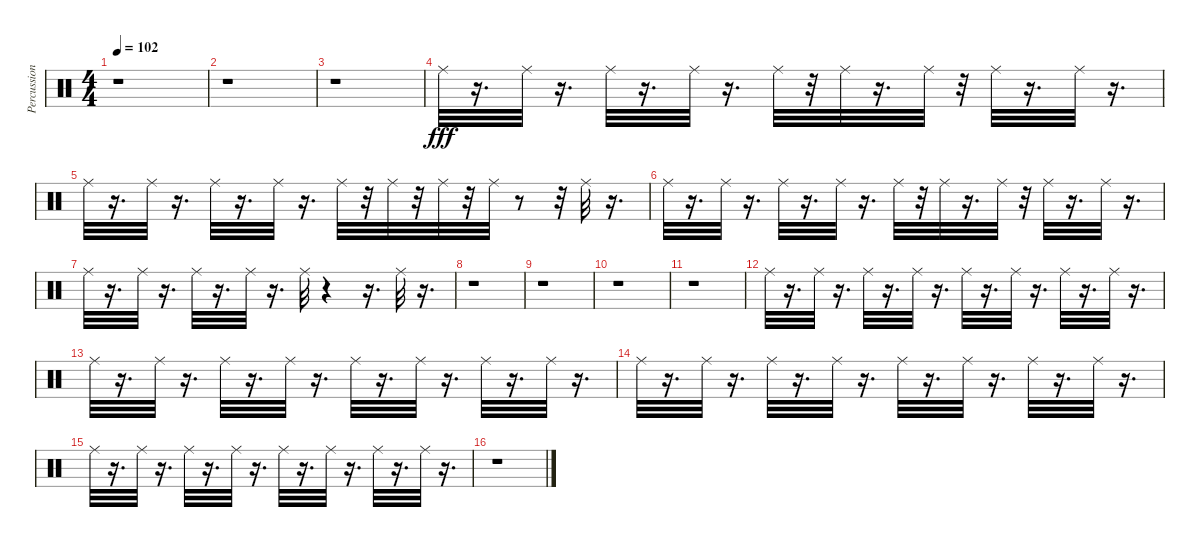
\track ("Percussion" "Percussion") {instrument percussion}
\staff {score}
\articulation defaults
\ts (4 4)
\tempo 102
\clef neutral
\ks c
r.1{dy fff} |
r.1 |
r.1 |
"Ride (middle)".32 r.16{d} "Ride (middle)".32 r.16{d} "Ride (middle)".32 r.16{d} "Ride (middle)".32 r.16{d} "Ride (middle)".32 r.32 "Ride (middle)".32 r.16{d} "Ride (middle)".32 r.32 "Ride (middle)".32 r.16{d} "Ride (middle)".32 r.16{d} |
"Ride (middle)".32 r.16{d} "Ride (middle)".32 r.16{d} "Ride (middle)".32 r.16{d} "Ride (middle)".32 r.16{d} "Ride (middle)".32 r.32 "Ride (middle)".32 r.32 "Ride (middle)".32 r.32 "Ride (middle)".32 r.8 r.32 "Ride (middle)".32 r.16{d} |
"Ride (middle)".32 r.16{d} "Ride (middle)".32 r.16{d} "Ride (middle)".32 r.16{d} "Ride (middle)".32 r.16{d} "Ride (middle)".32 r.32 "Ride (middle)".32 r.16{d} "Ride (middle)".32 r.32 "Ride (middle)".32 r.16{d} "Ride (middle)".32 r.16{d} |
"Ride (middle)".32 r.16{d} "Ride (middle)".32 r.16{d} "Ride (middle)".32 r.16{d} "Ride (middle)".32 r.16{d} "Ride (middle)".32 r.4 r.16{d} "Ride (middle)".32 r.16{d} |
r.1 |
r.1 |
r.1 |
r.1 |
"Ride (middle)".32 r.16{d} "Ride (middle)".32 r.16{d} "Ride (middle)".32 r.16{d} "Ride (middle)".32 r.16{d} "Ride (middle)".32 r.16{d} "Ride (middle)".32 r.16{d} "Ride (middle)".32 r.16{d} "Ride (middle)".32 r.16{d} |
"Ride (middle)".32 r.16{d} "Ride (middle)".32 r.16{d} "Ride (middle)".32 r.16{d} "Ride (middle)".32 r.16{d} "Ride (middle)".32 r.16{d} "Ride (middle)".32 r.16{d} "Ride (middle)".32 r.16{d} "Ride (middle)".32 r.16{d} |
"Ride (middle)".32 r.16{d} "Ride (middle)".32 r.16{d} "Ride (middle)".32 r.16{d} "Ride (middle)".32 r.16{d} "Ride (middle)".32 r.16{d} "Ride (middle)".32 r.16{d} "Ride (middle)".32 r.16{d} "Ride (middle)".32 r.16{d} |
"Ride (middle)".32 r.16{d} "Ride (middle)".32 r.16{d} "Ride (middle)".32 r.16{d} "Ride (middle)".32 r.16{d} "Ride (middle)".32 r.16{d} "Ride (middle)".32 r.16{d} "Ride (middle)".32 r.16{d} "Ride (middle)".32 r.16{d} |
r.1
